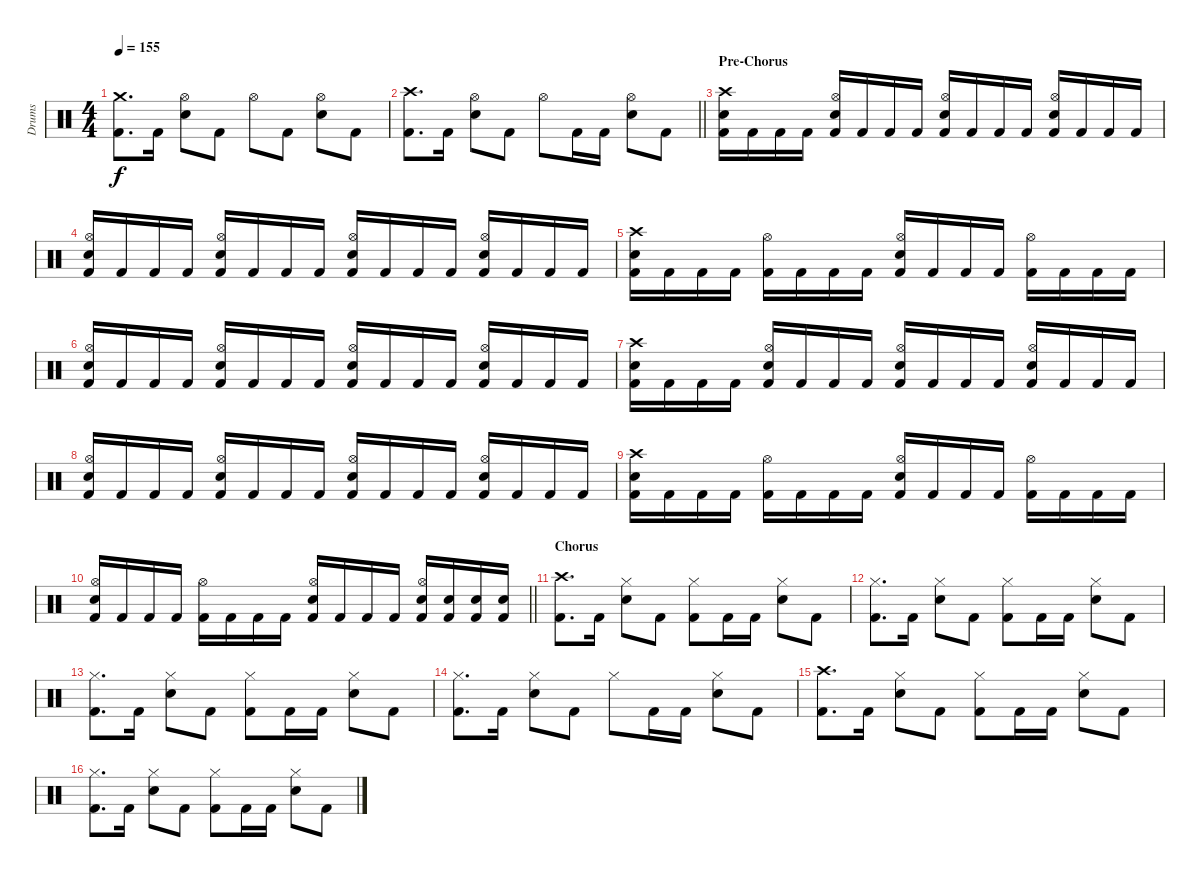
\track ("Drums" "Drums") {instrument percussion}
\staff {score}
\articulation defaults
\ts (4 4)
\tempo 155
\clef neutral
\ks c
("Crash medium (hit)" "Kick (hit) 2").8{d dy f} "Kick (hit) 2".16 ("Hi-Hat (open)" "Snare (hit) 2").8 "Kick (hit) 2".8 "Hi-Hat (open)".8 "Kick (hit) 2".8 ("Hi-Hat (open)" "Snare (hit) 2").8 "Kick (hit) 2".8 |
\barLineRight lightlight
("Crash high (hit)" "Kick (hit) 2").8{d} "Kick (hit) 2".16 ("Hi-Hat (open)" "Snare (hit) 2").8 "Kick (hit) 2".8 "Hi-Hat (open)".8 "Kick (hit) 2".16 "Kick (hit) 2".16 ("Hi-Hat (open)" "Snare (hit) 2").8 "Kick (hit) 2".8 |
\section ("" "Pre-Chorus")
("Crash high (hit)" "Snare (hit) 2" "Kick (hit) 2").16 "Kick (hit) 2".16 "Kick (hit) 2".16 "Kick (hit) 2".16 ("Hi-Hat (open)" "Snare (hit) 2" "Kick (hit) 2").16 "Kick (hit) 2".16 "Kick (hit) 2".16 "Kick (hit) 2".16 ("Hi-Hat (open)" "Snare (hit) 2" "Kick (hit) 2").16 "Kick (hit) 2".16 "Kick (hit) 2".16 "Kick (hit) 2".16 ("Hi-Hat (open)" "Snare (hit) 2" "Kick (hit) 2").16 "Kick (hit) 2".16 "Kick (hit) 2".16 "Kick (hit) 2".16 |
("Hi-Hat (open)" "Snare (hit) 2" "Kick (hit) 2").16 "Kick (hit) 2".16 "Kick (hit) 2".16 "Kick (hit) 2".16 ("Hi-Hat (open)" "Snare (hit) 2" "Kick (hit) 2").16 "Kick (hit) 2".16 "Kick (hit) 2".16 "Kick (hit) 2".16 ("Hi-Hat (open)" "Snare (hit) 2" "Kick (hit) 2").16 "Kick (hit) 2".16 "Kick (hit) 2".16 "Kick (hit) 2".16 ("Hi-Hat (open)" "Snare (hit) 2" "Kick (hit) 2").16 "Kick (hit) 2".16 "Kick (hit) 2".16 "Kick (hit) 2".16 |
("Crash high (hit)" "Snare (hit) 2" "Kick (hit) 2").16 "Kick (hit) 2".16 "Kick (hit) 2".16 "Kick (hit) 2".16 ("Hi-Hat (open)" "Kick (hit) 2").16 "Kick (hit) 2".16 "Kick (hit) 2".16 "Kick (hit) 2".16 ("Hi-Hat (open)" "Snare (hit) 2" "Kick (hit) 2").16 "Kick (hit) 2".16 "Kick (hit) 2".16 "Kick (hit) 2".16 ("Hi-Hat (open)" "Kick (hit) 2").16 "Kick (hit) 2".16 "Kick (hit) 2".16 "Kick (hit) 2".16 |
("Hi-Hat (open)" "Snare (hit) 2" "Kick (hit) 2").16 "Kick (hit) 2".16 "Kick (hit) 2".16 "Kick (hit) 2".16 ("Hi-Hat (open)" "Snare (hit) 2" "Kick (hit) 2").16 "Kick (hit) 2".16 "Kick (hit) 2".16 "Kick (hit) 2".16 ("Hi-Hat (open)" "Snare (hit) 2" "Kick (hit) 2").16 "Kick (hit) 2".16 "Kick (hit) 2".16 "Kick (hit) 2".16 ("Hi-Hat (open)" "Snare (hit) 2" "Kick (hit) 2").16 "Kick (hit) 2".16 "Kick (hit) 2".16 "Kick (hit) 2".16 |
("Crash high (hit)" "Snare (hit) 2" "Kick (hit) 2").16 "Kick (hit) 2".16 "Kick (hit) 2".16 "Kick (hit) 2".16 ("Hi-Hat (open)" "Snare (hit) 2" "Kick (hit) 2").16 "Kick (hit) 2".16 "Kick (hit) 2".16 "Kick (hit) 2".16 ("Hi-Hat (open)" "Snare (hit) 2" "Kick (hit) 2").16 "Kick (hit) 2".16 "Kick (hit) 2".16 "Kick (hit) 2".16 ("Hi-Hat (open)" "Snare (hit) 2" "Kick (hit) 2").16 "Kick (hit) 2".16 "Kick (hit) 2".16 "Kick (hit) 2".16 |
("Hi-Hat (open)" "Snare (hit) 2" "Kick (hit) 2").16 "Kick (hit) 2".16 "Kick (hit) 2".16 "Kick (hit) 2".16 ("Hi-Hat (open)" "Snare (hit) 2" "Kick (hit) 2").16 "Kick (hit) 2".16 "Kick (hit) 2".16 "Kick (hit) 2".16 ("Hi-Hat (open)" "Snare (hit) 2" "Kick (hit) 2").16 "Kick (hit) 2".16 "Kick (hit) 2".16 "Kick (hit) 2".16 ("Hi-Hat (open)" "Snare (hit) 2" "Kick (hit) 2").16 "Kick (hit) 2".16 "Kick (hit) 2".16 "Kick (hit) 2".16 |
("Crash high (hit)" "Snare (hit) 2" "Kick (hit) 2").16 "Kick (hit) 2".16 "Kick (hit) 2".16 "Kick (hit) 2".16 ("Hi-Hat (open)" "Kick (hit) 2").16 "Kick (hit) 2".16 "Kick (hit) 2".16 "Kick (hit) 2".16 ("Hi-Hat (open)" "Snare (hit) 2" "Kick (hit) 2").16 "Kick (hit) 2".16 "Kick (hit) 2".16 "Kick (hit) 2".16 ("Hi-Hat (open)" "Kick (hit) 2").16 "Kick (hit) 2".16 "Kick (hit) 2".16 "Kick (hit) 2".16 |
\barLineRight lightlight
("Hi-Hat (open)" "Snare (hit) 2" "Kick (hit) 2").16 "Kick (hit) 2".16 "Kick (hit) 2".16 "Kick (hit) 2".16 ("Hi-Hat (open)" "Kick (hit) 2").16 "Kick (hit) 2".16 "Kick (hit) 2".16 "Kick (hit) 2".16 ("Hi-Hat (open)" "Snare (hit) 2" "Kick (hit) 2").16 "Kick (hit) 2".16 "Kick (hit) 2".16 "Kick (hit) 2".16 ("Hi-Hat (open)" "Snare (hit) 2" "Kick (hit) 2").16 ("Snare (hit) 2" "Kick (hit) 2").16 ("Snare (hit) 2" "Kick (hit) 2").16 ("Snare (hit) 2" "Kick (hit) 2").16 |
\section ("" "Chorus")
("Crash high (hit)" "Kick (hit) 2").8{d} "Kick (hit) 2".16 ("Hi-Hat (closed)" "Snare (hit) 2").8 "Kick (hit) 2".8 ("Hi-Hat (closed)" "Kick (hit) 2").8 "Kick (hit) 2".16 "Kick (hit) 2".16 ("Hi-Hat (closed)" "Snare (hit) 2").8 "Kick (hit) 2".8 |
("Hi-Hat (closed)" "Kick (hit) 2").8{d} "Kick (hit) 2".16 ("Hi-Hat (closed)" "Snare (hit) 2").8 "Kick (hit) 2".8 ("Hi-Hat (closed)" "Kick (hit) 2").8 "Kick (hit) 2".16 "Kick (hit) 2".16 ("Hi-Hat (closed)" "Snare (hit) 2").8 "Kick (hit) 2".8 |
("Hi-Hat (closed)" "Kick (hit) 2").8{d} "Kick (hit) 2".16 ("Hi-Hat (closed)" "Snare (hit) 2").8 "Kick (hit) 2".8 ("Hi-Hat (closed)" "Kick (hit) 2").8 "Kick (hit) 2".16 "Kick (hit) 2".16 ("Hi-Hat (closed)" "Snare (hit) 2").8 "Kick (hit) 2".8 |
("Hi-Hat (closed)" "Kick (hit) 2").8{d} "Kick (hit) 2".16 ("Hi-Hat (closed)" "Snare (hit) 2").8 "Kick (hit) 2".8 "Hi-Hat (closed)".8 "Kick (hit) 2".16 "Kick (hit) 2".16 ("Hi-Hat (closed)" "Snare (hit) 2").8 "Kick (hit) 2".8 |
("Crash high (hit)" "Kick (hit) 2").8{d} "Kick (hit) 2".16 ("Hi-Hat (closed)" "Snare (hit) 2").8 "Kick (hit) 2".8 ("Hi-Hat (closed)" "Kick (hit) 2").8 "Kick (hit) 2".16 "Kick (hit) 2".16 ("Hi-Hat (closed)" "Snare (hit) 2").8 "Kick (hit) 2".8 |
("Hi-Hat (closed)" "Kick (hit) 2").8{d} "Kick (hit) 2".16 ("Hi-Hat (closed)" "Snare (hit) 2").8 "Kick (hit) 2".8 ("Hi-Hat (closed)" "Kick (hit) 2").8 "Kick (hit) 2".16 "Kick (hit) 2".16 ("Hi-Hat (closed)" "Snare (hit) 2").8 "Kick (hit) 2".8
